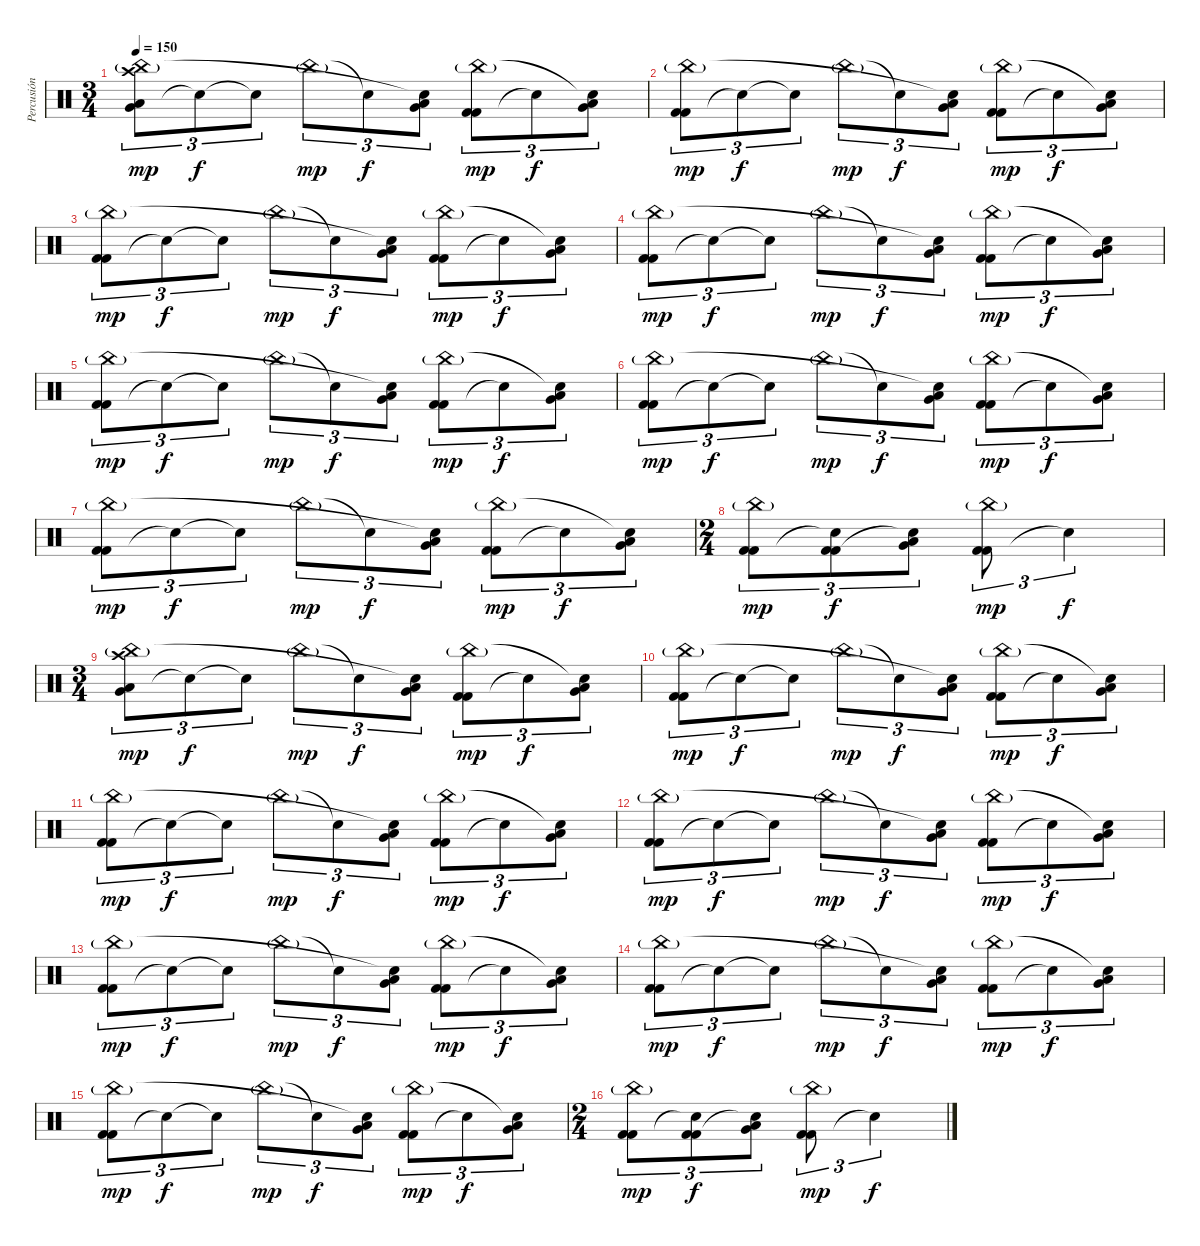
\track ("Percusión" "Percusión") {instrument percussion}
\staff {score}
\articulation defaults
\ts (3 4)
\tempo 150
\clef neutral
\ks c
("Low Floor Tom (hit)" "Very Low Tom (hit)" "China (hit)"{g} "Crash high (hit)").8{tu (3 2) dy mp} "Snare (hit)"{t}.8{tu (3 2) dy f} "Snare (hit)"{t}.8{tu (3 2)} "China (hit)"{g}.8{tu (3 2) dy mp} "Snare (hit)"{t}.8{tu (3 2) dy f} ("Low Floor Tom (hit)" "Very Low Tom (hit)" "Snare (hit)"{t}).8{tu (3 2)} ("Kick (hit) 2" "Kick (hit) 2" "China (hit)"{g}).8{tu (3 2) dy mp} "Snare (hit)"{t}.8{tu (3 2) dy f} ("Low Floor Tom (hit)" "Very Low Tom (hit)" "Snare (hit)"{t}).8{tu (3 2)} |
("Kick (hit) 2" "Kick (hit) 2" "China (hit)"{g}).8{tu (3 2) dy mp} "Snare (hit)"{t}.8{tu (3 2) dy f} "Snare (hit)"{t}.8{tu (3 2)} "China (hit)"{g}.8{tu (3 2) dy mp} "Snare (hit)"{t}.8{tu (3 2) dy f} ("Low Floor Tom (hit)" "Very Low Tom (hit)" "Snare (hit)"{t}).8{tu (3 2)} ("Kick (hit) 2" "Kick (hit) 2" "China (hit)"{g}).8{tu (3 2) dy mp} "Snare (hit)"{t}.8{tu (3 2) dy f} ("Low Floor Tom (hit)" "Very Low Tom (hit)" "Snare (hit)"{t}).8{tu (3 2)} |
("Kick (hit) 2" "Kick (hit) 2" "China (hit)"{g}).8{tu (3 2) dy mp} "Snare (hit)"{t}.8{tu (3 2) dy f} "Snare (hit)"{t}.8{tu (3 2)} "China (hit)"{g}.8{tu (3 2) dy mp} "Snare (hit)"{t}.8{tu (3 2) dy f} ("Low Floor Tom (hit)" "Very Low Tom (hit)" "Snare (hit)"{t}).8{tu (3 2)} ("Kick (hit) 2" "Kick (hit) 2" "China (hit)"{g}).8{tu (3 2) dy mp} "Snare (hit)"{t}.8{tu (3 2) dy f} ("Low Floor Tom (hit)" "Very Low Tom (hit)" "Snare (hit)"{t}).8{tu (3 2)} |
("Kick (hit) 2" "Kick (hit) 2" "China (hit)"{g}).8{tu (3 2) dy mp} "Snare (hit)"{t}.8{tu (3 2) dy f} "Snare (hit)"{t}.8{tu (3 2)} "China (hit)"{g}.8{tu (3 2) dy mp} "Snare (hit)"{t}.8{tu (3 2) dy f} ("Low Floor Tom (hit)" "Very Low Tom (hit)" "Snare (hit)"{t}).8{tu (3 2)} ("Kick (hit) 2" "Kick (hit) 2" "China (hit)"{g}).8{tu (3 2) dy mp} "Snare (hit)"{t}.8{tu (3 2) dy f} ("Low Floor Tom (hit)" "Very Low Tom (hit)" "Snare (hit)"{t}).8{tu (3 2)} |
("Kick (hit) 2" "Kick (hit) 2" "China (hit)"{g}).8{tu (3 2) dy mp} "Snare (hit)"{t}.8{tu (3 2) dy f} "Snare (hit)"{t}.8{tu (3 2)} "China (hit)"{g}.8{tu (3 2) dy mp} "Snare (hit)"{t}.8{tu (3 2) dy f} ("Low Floor Tom (hit)" "Very Low Tom (hit)" "Snare (hit)"{t}).8{tu (3 2)} ("Kick (hit) 2" "Kick (hit) 2" "China (hit)"{g}).8{tu (3 2) dy mp} "Snare (hit)"{t}.8{tu (3 2) dy f} ("Low Floor Tom (hit)" "Very Low Tom (hit)" "Snare (hit)"{t}).8{tu (3 2)} |
("Kick (hit) 2" "Kick (hit) 2" "China (hit)"{g}).8{tu (3 2) dy mp} "Snare (hit)"{t}.8{tu (3 2) dy f} "Snare (hit)"{t}.8{tu (3 2)} "China (hit)"{g}.8{tu (3 2) dy mp} "Snare (hit)"{t}.8{tu (3 2) dy f} ("Low Floor Tom (hit)" "Very Low Tom (hit)" "Snare (hit)"{t}).8{tu (3 2)} ("Kick (hit) 2" "Kick (hit) 2" "China (hit)"{g}).8{tu (3 2) dy mp} "Snare (hit)"{t}.8{tu (3 2) dy f} ("Low Floor Tom (hit)" "Very Low Tom (hit)" "Snare (hit)"{t}).8{tu (3 2)} |
("Kick (hit) 2" "Kick (hit) 2" "China (hit)"{g}).8{tu (3 2) dy mp} "Snare (hit)"{t}.8{tu (3 2) dy f} "Snare (hit)"{t}.8{tu (3 2)} "China (hit)"{g}.8{tu (3 2) dy mp} "Snare (hit)"{t}.8{tu (3 2) dy f} ("Low Floor Tom (hit)" "Very Low Tom (hit)" "Snare (hit)"{t}).8{tu (3 2)} ("Kick (hit) 2" "Kick (hit) 2" "China (hit)"{g}).8{tu (3 2) dy mp} "Snare (hit)"{t}.8{tu (3 2) dy f} ("Low Floor Tom (hit)" "Very Low Tom (hit)" "Snare (hit)"{t}).8{tu (3 2)} |
\ts (2 4)
("Kick (hit) 2" "Kick (hit) 2" "China (hit)"{g}).8{tu (3 2) dy mp} ("Snare (hit)"{t} "Kick (hit) 2" "Kick (hit) 2").8{tu (3 2) dy f} ("Low Floor Tom (hit)" "Very Low Tom (hit)" "Snare (hit)"{t}).8{tu (3 2)} ("Kick (hit) 2" "Kick (hit) 2" "China (hit)"{g}).8{tu (3 2) dy mp} "Snare (hit)"{t}.4{tu (3 2) dy f} |
\ts (3 4)
("Low Floor Tom (hit)" "Very Low Tom (hit)" "China (hit)"{g} "Crash high (hit)").8{tu (3 2) dy mp} "Snare (hit)"{t}.8{tu (3 2) dy f} "Snare (hit)"{t}.8{tu (3 2)} "China (hit)"{g}.8{tu (3 2) dy mp} "Snare (hit)"{t}.8{tu (3 2) dy f} ("Low Floor Tom (hit)" "Very Low Tom (hit)" "Snare (hit)"{t}).8{tu (3 2)} ("Kick (hit) 2" "Kick (hit) 2" "China (hit)"{g}).8{tu (3 2) dy mp} "Snare (hit)"{t}.8{tu (3 2) dy f} ("Low Floor Tom (hit)" "Very Low Tom (hit)" "Snare (hit)"{t}).8{tu (3 2)} |
("Kick (hit) 2" "Kick (hit) 2" "China (hit)"{g}).8{tu (3 2) dy mp} "Snare (hit)"{t}.8{tu (3 2) dy f} "Snare (hit)"{t}.8{tu (3 2)} "China (hit)"{g}.8{tu (3 2) dy mp} "Snare (hit)"{t}.8{tu (3 2) dy f} ("Low Floor Tom (hit)" "Very Low Tom (hit)" "Snare (hit)"{t}).8{tu (3 2)} ("Kick (hit) 2" "Kick (hit) 2" "China (hit)"{g}).8{tu (3 2) dy mp} "Snare (hit)"{t}.8{tu (3 2) dy f} ("Low Floor Tom (hit)" "Very Low Tom (hit)" "Snare (hit)"{t}).8{tu (3 2)} |
("Kick (hit) 2" "Kick (hit) 2" "China (hit)"{g}).8{tu (3 2) dy mp} "Snare (hit)"{t}.8{tu (3 2) dy f} "Snare (hit)"{t}.8{tu (3 2)} "China (hit)"{g}.8{tu (3 2) dy mp} "Snare (hit)"{t}.8{tu (3 2) dy f} ("Low Floor Tom (hit)" "Very Low Tom (hit)" "Snare (hit)"{t}).8{tu (3 2)} ("Kick (hit) 2" "Kick (hit) 2" "China (hit)"{g}).8{tu (3 2) dy mp} "Snare (hit)"{t}.8{tu (3 2) dy f} ("Low Floor Tom (hit)" "Very Low Tom (hit)" "Snare (hit)"{t}).8{tu (3 2)} |
("Kick (hit) 2" "Kick (hit) 2" "China (hit)"{g}).8{tu (3 2) dy mp} "Snare (hit)"{t}.8{tu (3 2) dy f} "Snare (hit)"{t}.8{tu (3 2)} "China (hit)"{g}.8{tu (3 2) dy mp} "Snare (hit)"{t}.8{tu (3 2) dy f} ("Low Floor Tom (hit)" "Very Low Tom (hit)" "Snare (hit)"{t}).8{tu (3 2)} ("Kick (hit) 2" "Kick (hit) 2" "China (hit)"{g}).8{tu (3 2) dy mp} "Snare (hit)"{t}.8{tu (3 2) dy f} ("Low Floor Tom (hit)" "Very Low Tom (hit)" "Snare (hit)"{t}).8{tu (3 2)} |
("Kick (hit) 2" "Kick (hit) 2" "China (hit)"{g}).8{tu (3 2) dy mp} "Snare (hit)"{t}.8{tu (3 2) dy f} "Snare (hit)"{t}.8{tu (3 2)} "China (hit)"{g}.8{tu (3 2) dy mp} "Snare (hit)"{t}.8{tu (3 2) dy f} ("Low Floor Tom (hit)" "Very Low Tom (hit)" "Snare (hit)"{t}).8{tu (3 2)} ("Kick (hit) 2" "Kick (hit) 2" "China (hit)"{g}).8{tu (3 2) dy mp} "Snare (hit)"{t}.8{tu (3 2) dy f} ("Low Floor Tom (hit)" "Very Low Tom (hit)" "Snare (hit)"{t}).8{tu (3 2)} |
("Kick (hit) 2" "Kick (hit) 2" "China (hit)"{g}).8{tu (3 2) dy mp} "Snare (hit)"{t}.8{tu (3 2) dy f} "Snare (hit)"{t}.8{tu (3 2)} "China (hit)"{g}.8{tu (3 2) dy mp} "Snare (hit)"{t}.8{tu (3 2) dy f} ("Low Floor Tom (hit)" "Very Low Tom (hit)" "Snare (hit)"{t}).8{tu (3 2)} ("Kick (hit) 2" "Kick (hit) 2" "China (hit)"{g}).8{tu (3 2) dy mp} "Snare (hit)"{t}.8{tu (3 2) dy f} ("Low Floor Tom (hit)" "Very Low Tom (hit)" "Snare (hit)"{t}).8{tu (3 2)} |
("Kick (hit) 2" "Kick (hit) 2" "China (hit)"{g}).8{tu (3 2) dy mp} "Snare (hit)"{t}.8{tu (3 2) dy f} "Snare (hit)"{t}.8{tu (3 2)} "China (hit)"{g}.8{tu (3 2) dy mp} "Snare (hit)"{t}.8{tu (3 2) dy f} ("Low Floor Tom (hit)" "Very Low Tom (hit)" "Snare (hit)"{t}).8{tu (3 2)} ("Kick (hit) 2" "Kick (hit) 2" "China (hit)"{g}).8{tu (3 2) dy mp} "Snare (hit)"{t}.8{tu (3 2) dy f} ("Low Floor Tom (hit)" "Very Low Tom (hit)" "Snare (hit)"{t}).8{tu (3 2)} |
\ts (2 4)
("Kick (hit) 2" "Kick (hit) 2" "China (hit)"{g}).8{tu (3 2) dy mp} ("Snare (hit)"{t} "Kick (hit) 2" "Kick (hit) 2").8{tu (3 2) dy f} ("Low Floor Tom (hit)" "Very Low Tom (hit)" "Snare (hit)"{t}).8{tu (3 2)} ("Kick (hit) 2" "Kick (hit) 2" "China (hit)"{g}).8{tu (3 2) dy mp} "Snare (hit)"{t}.4{tu (3 2) dy f}
